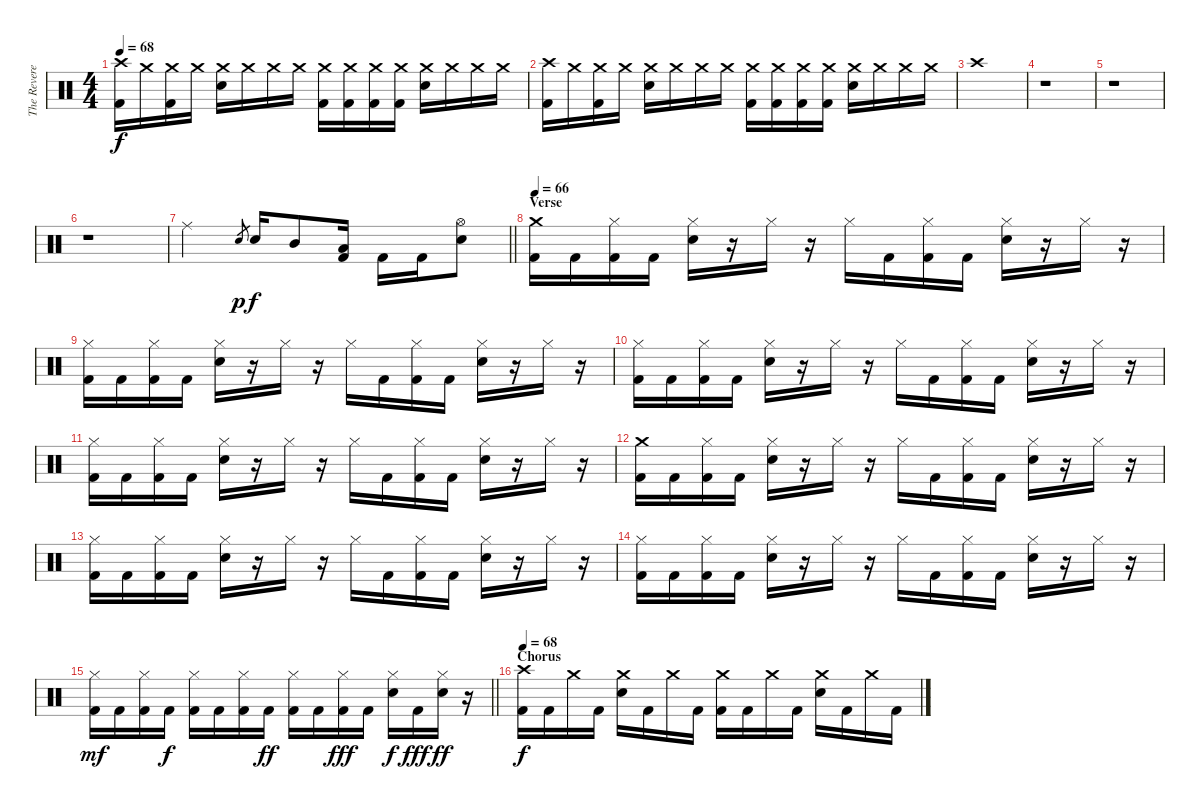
\track ("The Reverend" "The Revere") {instrument percussion}
\staff {score}
\articulation defaults
\ts (4 4)
\tempo 68
\clef neutral
\ks c
("Crash high (hit)" "Kick (hit) 2").16{dy f} "Crash medium (hit)".16 ("Crash medium (hit)" "Kick (hit) 2").16 "Crash medium (hit)".16 ("Crash medium (hit)" "Electric Snare (hit)").16 "Crash medium (hit)".16 "Crash medium (hit)".16 "Crash medium (hit)".16 ("Crash medium (hit)" "Kick (hit) 2").16 ("Crash medium (hit)" "Kick (hit) 2").16 ("Crash medium (hit)" "Kick (hit) 2").16 ("Crash medium (hit)" "Kick (hit) 2").16 ("Crash medium (hit)" "Electric Snare (hit)").16 "Crash medium (hit)".16 "Crash medium (hit)".16 "Crash medium (hit)".16 |
("Crash high (hit)" "Kick (hit) 2").16 "Crash medium (hit)".16 ("Crash medium (hit)" "Kick (hit) 2").16 "Crash medium (hit)".16 ("Crash medium (hit)" "Electric Snare (hit)").16 "Crash medium (hit)".16 "Crash medium (hit)".16 "Crash medium (hit)".16 ("Crash medium (hit)" "Kick (hit) 2").16 ("Crash medium (hit)" "Kick (hit) 2").16 ("Crash medium (hit)" "Kick (hit) 2").16 ("Crash medium (hit)" "Kick (hit) 2").16 ("Crash medium (hit)" "Electric Snare (hit)").16 "Crash medium (hit)".16 "Crash medium (hit)".16 "Crash medium (hit)".16 |
"Crash high (hit)".1 |
r.1 |
r.1 |
r.1 |
\barLineRight lightlight "Ride (middle)".2 "Electric Snare (hit)".8{gr dy p} "Electric Snare (hit)".16{dy f} "Mid Tom (hit)".8
("Low Tom (hit)" "Kick (hit) 2").16 "Kick (hit) 2".16 "Kick (hit) 2".16 ("Hi-Hat (open)" "Electric Snare (hit)").8 |
\section ("" "Verse")
\tempo 66
("Crash medium (hit)" "Kick (hit) 2").16 "Kick (hit) 2".16 ("Hi-Hat (closed)" "Kick (hit) 2").16 "Kick (hit) 2".16 ("Hi-Hat (closed)" "Electric Snare (hit)").16 r.16 "Hi-Hat (closed)".16 r.16 "Hi-Hat (closed)".16 "Kick (hit) 2".16 ("Hi-Hat (closed)" "Kick (hit) 2").16 "Kick (hit) 2".16 ("Hi-Hat (closed)" "Electric Snare (hit)").16 r.16 "Hi-Hat (closed)".16 r.16 |
("Hi-Hat (closed)" "Kick (hit) 2").16 "Kick (hit) 2".16 ("Hi-Hat (closed)" "Kick (hit) 2").16 "Kick (hit) 2".16 ("Hi-Hat (closed)" "Electric Snare (hit)").16 r.16 "Hi-Hat (closed)".16 r.16 "Hi-Hat (closed)".16 "Kick (hit) 2".16 ("Hi-Hat (closed)" "Kick (hit) 2").16 "Kick (hit) 2".16 ("Hi-Hat (closed)" "Electric Snare (hit)").16 r.16 "Hi-Hat (closed)".16 r.16 |
("Hi-Hat (closed)" "Kick (hit) 2").16 "Kick (hit) 2".16 ("Hi-Hat (closed)" "Kick (hit) 2").16 "Kick (hit) 2".16 ("Hi-Hat (closed)" "Electric Snare (hit)").16 r.16 "Hi-Hat (closed)".16 r.16 "Hi-Hat (closed)".16 "Kick (hit) 2".16 ("Hi-Hat (closed)" "Kick (hit) 2").16 "Kick (hit) 2".16 ("Hi-Hat (closed)" "Electric Snare (hit)").16 r.16 "Hi-Hat (closed)".16 r.16 |
("Hi-Hat (closed)" "Kick (hit) 2").16 "Kick (hit) 2".16 ("Hi-Hat (closed)" "Kick (hit) 2").16 "Kick (hit) 2".16 ("Hi-Hat (closed)" "Electric Snare (hit)").16 r.16 "Hi-Hat (closed)".16 r.16 "Hi-Hat (closed)".16 "Kick (hit) 2".16 ("Hi-Hat (closed)" "Kick (hit) 2").16 "Kick (hit) 2".16 ("Hi-Hat (closed)" "Electric Snare (hit)").16 r.16 "Hi-Hat (closed)".16 r.16 |
("Crash medium (hit)" "Kick (hit) 2").16 "Kick (hit) 2".16 ("Hi-Hat (closed)" "Kick (hit) 2").16 "Kick (hit) 2".16 ("Hi-Hat (closed)" "Electric Snare (hit)").16 r.16 "Hi-Hat (closed)".16 r.16 "Hi-Hat (closed)".16 "Kick (hit) 2".16 ("Hi-Hat (closed)" "Kick (hit) 2").16 "Kick (hit) 2".16 ("Hi-Hat (closed)" "Electric Snare (hit)").16 r.16 "Hi-Hat (closed)".16 r.16 |
("Hi-Hat (closed)" "Kick (hit) 2").16 "Kick (hit) 2".16 ("Hi-Hat (closed)" "Kick (hit) 2").16 "Kick (hit) 2".16 ("Hi-Hat (closed)" "Electric Snare (hit)").16 r.16 "Hi-Hat (closed)".16 r.16 "Hi-Hat (closed)".16 "Kick (hit) 2".16 ("Hi-Hat (closed)" "Kick (hit) 2").16 "Kick (hit) 2".16 ("Hi-Hat (closed)" "Electric Snare (hit)").16 r.16 "Hi-Hat (closed)".16 r.16 |
("Hi-Hat (closed)" "Kick (hit) 2").16 "Kick (hit) 2".16 ("Hi-Hat (closed)" "Kick (hit) 2").16 "Kick (hit) 2".16 ("Hi-Hat (closed)" "Electric Snare (hit)").16 r.16 "Hi-Hat (closed)".16 r.16 "Hi-Hat (closed)".16 "Kick (hit) 2".16 ("Hi-Hat (closed)" "Kick (hit) 2").16 "Kick (hit) 2".16 ("Hi-Hat (closed)" "Electric Snare (hit)").16 r.16 "Hi-Hat (closed)".16 r.16 |
\barLineRight lightlight
("Hi-Hat (closed)" "Kick (hit) 2").16{dy mf} "Kick (hit) 2".16 ("Hi-Hat (closed)" "Kick (hit) 2").16 "Kick (hit) 2".16{dy f} ("Hi-Hat (closed)" "Kick (hit) 2").16 "Kick (hit) 2".16 ("Hi-Hat (closed)" "Kick (hit) 2").16 "Kick (hit) 2".16{dy ff} ("Hi-Hat (closed)" "Kick (hit) 2").16 "Kick (hit) 2".16 ("Hi-Hat (closed)" "Kick (hit) 2").16{dy fff} "Kick (hit) 2".16 ("Hi-Hat (closed)" "Electric Snare (hit)").16{dy f} "Kick (hit) 2".16{dy fff} ("Hi-Hat (closed)" "Electric Snare (hit)").16{dy ff} r.16 |
\section ("" "Chorus")
\tempo 68
("Crash high (hit)" "Kick (hit) 2").16{dy f} "Kick (hit) 2".16 "Crash medium (hit)".16 "Kick (hit) 2".16 ("Crash medium (hit)" "Electric Snare (hit)").16 "Kick (hit) 2".16 "Crash medium (hit)".16 "Kick (hit) 2".16 ("Crash medium (hit)" "Kick (hit) 2").16 "Kick (hit) 2".16 "Crash medium (hit)".16 "Kick (hit) 2".16 ("Crash medium (hit)" "Electric Snare (hit)").16 "Kick (hit) 2".16 "Crash medium (hit)".16 "Kick (hit) 2".16
